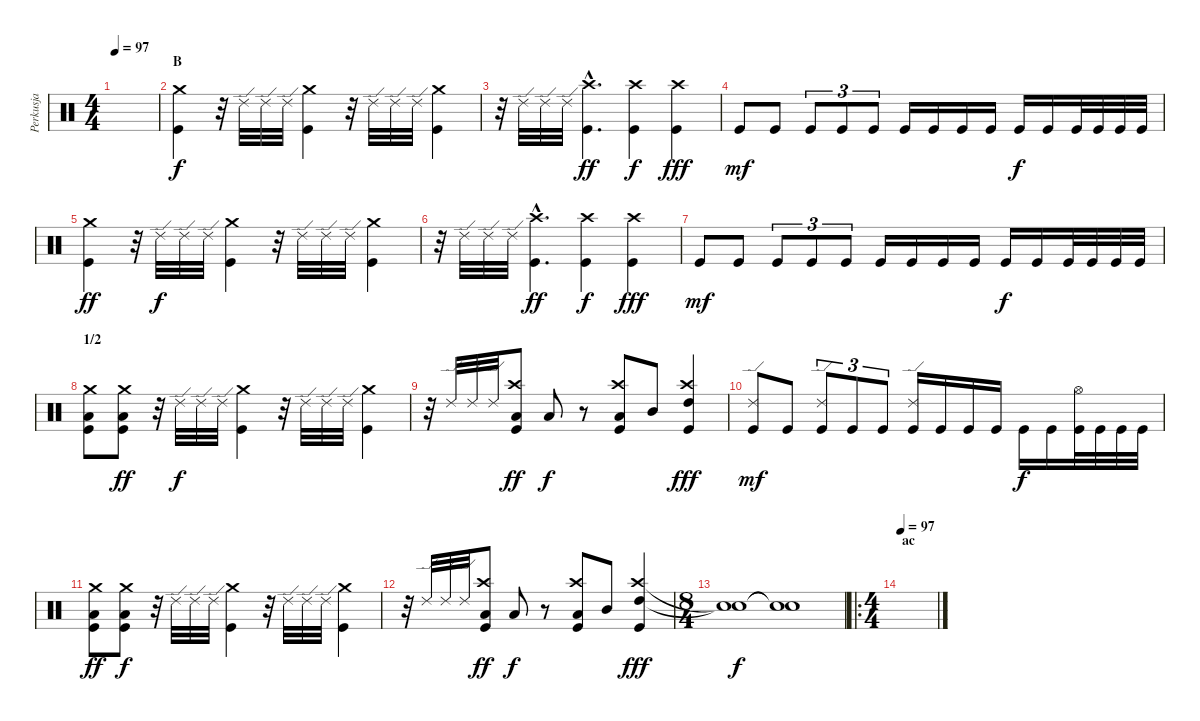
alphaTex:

\track ("Perkusja" "Perkusja") {instrument percussion}
\staff {score}
\articulation defaults
\ts (4 4)
\tempo 97
\clef neutral
\ks c
|
\section ("" "B")
("Crash medium (hit)" "Kick (hit)").4 r.32 "Ride (edge) 2".32{dy f} "Ride (edge) 2".32 "Ride (edge) 2".32 ("Crash medium (hit)" "Kick (hit)").4 r.32 "Ride (edge) 2".32 "Ride (edge) 2".32 "Ride (edge) 2".32 ("Crash medium (hit)" "Kick (hit)").4 |
r.32 "Ride (edge) 2".32 "Ride (edge) 2".32 "Ride (edge) 2".32 ("Crash high (hit)"{hac} "Kick (hit)"{hac}).4{d dy ff} ("Crash high (hit)" "Kick (hit)").4{dy f} ("Crash high (hit)" "Kick (hit)").4{dy fff} |
"Kick (hit)".8{dy mf} "Kick (hit)".8 "Kick (hit)".8{tu (3 2)} "Kick (hit)".8{tu (3 2)} "Kick (hit)".8{tu (3 2)} "Kick (hit)".16 "Kick (hit)".16 "Kick (hit)".16 "Kick (hit)".16 "Kick (hit)".16{dy f} "Kick (hit)".16 "Kick (hit)".32 "Kick (hit)".32 "Kick (hit)".32 "Kick (hit)".32 |
("Crash medium (hit)" "Kick (hit)").4{dy ff} r.32 "Ride (edge) 2".32{dy f} "Ride (edge) 2".32 "Ride (edge) 2".32 ("Crash medium (hit)" "Kick (hit)").4 r.32 "Ride (edge) 2".32 "Ride (edge) 2".32 "Ride (edge) 2".32 ("Crash medium (hit)" "Kick (hit)").4 |
r.32 "Ride (edge) 2".32 "Ride (edge) 2".32 "Ride (edge) 2".32 ("Crash high (hit)"{hac} "Kick (hit)"{hac}).4{d dy ff} ("Crash high (hit)" "Kick (hit)").4{dy f} ("Crash high (hit)" "Kick (hit)").4{dy fff} |
"Kick (hit)".8{dy mf} "Kick (hit)".8 "Kick (hit)".8{tu (3 2)} "Kick (hit)".8{tu (3 2)} "Kick (hit)".8{tu (3 2)} "Kick (hit)".16 "Kick (hit)".16 "Kick (hit)".16 "Kick (hit)".16 "Kick (hit)".16{dy f} "Kick (hit)".16 "Kick (hit)".32 "Kick (hit)".32 "Kick (hit)".32 "Kick (hit)".32 |
\section ("" "1/2")
("Crash medium (hit)" "Low Floor Tom (hit)" "Kick (hit)").8 ("Crash medium (hit)" "Low Floor Tom (hit)" "Kick (hit)").8{dy ff} r.32 "Ride (edge) 2".32{dy f} "Ride (edge) 2".32 "Ride (edge) 2".32 ("Crash medium (hit)" "Kick (hit)").4 r.32 "Ride (edge) 2".32 "Ride (edge) 2".32 "Ride (edge) 2".32 ("Crash medium (hit)" "Kick (hit)").4 |
r.32 "Ride (edge) 2".32 "Ride (edge) 2".32 "Ride (edge) 2".32 ("Crash high (hit)" "Low Floor Tom (hit)" "Kick (hit)").8{dy ff} "Low Floor Tom (hit)".8{dy f} r.8 ("Crash high (hit)" "Low Tom (hit)" "Kick (hit)").8 "Mid Tom (hit)".8 ("Crash high (hit)" "High Tom (hit)" "Kick (hit)").4{dy fff} |
("Ride (edge) 2" "Kick (hit)").8{dy mf} "Kick (hit)".8 ("Ride (edge) 2" "Kick (hit)").8{tu (3 2)} "Kick (hit)".8{tu (3 2)} "Kick (hit)".8{tu (3 2)} ("Ride (edge) 2" "Kick (hit)").16 "Kick (hit)".16 "Kick (hit)".16 "Kick (hit)".16 "Kick (hit)".16{dy f} "Kick (hit)".16 ("Hi-Hat (open)" "Kick (hit)").32 "Kick (hit)".32 "Kick (hit)".32 "Kick (hit)".32 |
("Crash medium (hit)" "Low Floor Tom (hit)" "Kick (hit)").8{dy ff} ("Crash medium (hit)" "Low Floor Tom (hit)" "Kick (hit)").8{dy f} r.32 "Ride (edge) 2".32 "Ride (edge) 2".32 "Ride (edge) 2".32 ("Crash medium (hit)" "Kick (hit)").4 r.32 "Ride (edge) 2".32 "Ride (edge) 2".32 "Ride (edge) 2".32 ("Crash medium (hit)" "Kick (hit)").4 |
r.32 "Ride (edge) 2".32 "Ride (edge) 2".32 "Ride (edge) 2".32 ("Crash high (hit)" "Low Floor Tom (hit)" "Kick (hit)").8{dy ff} "Low Floor Tom (hit)".8{dy f} r.8 ("Crash high (hit)" "Low Tom (hit)" "Kick (hit)").8 "Mid Tom (hit)".8 ("Crash high (hit)" "High Tom (hit)" "Kick (hit)").4{dy fff} |
\ts (8 4)
("Snare (hit)"{t} "Snare (hit)"{t}).1{dy f} ("Snare (hit)"{t} "Snare (hit)"{t}).1 |
\ro
\ts (4 4)
\section ("" "ac")
\tempo 97
